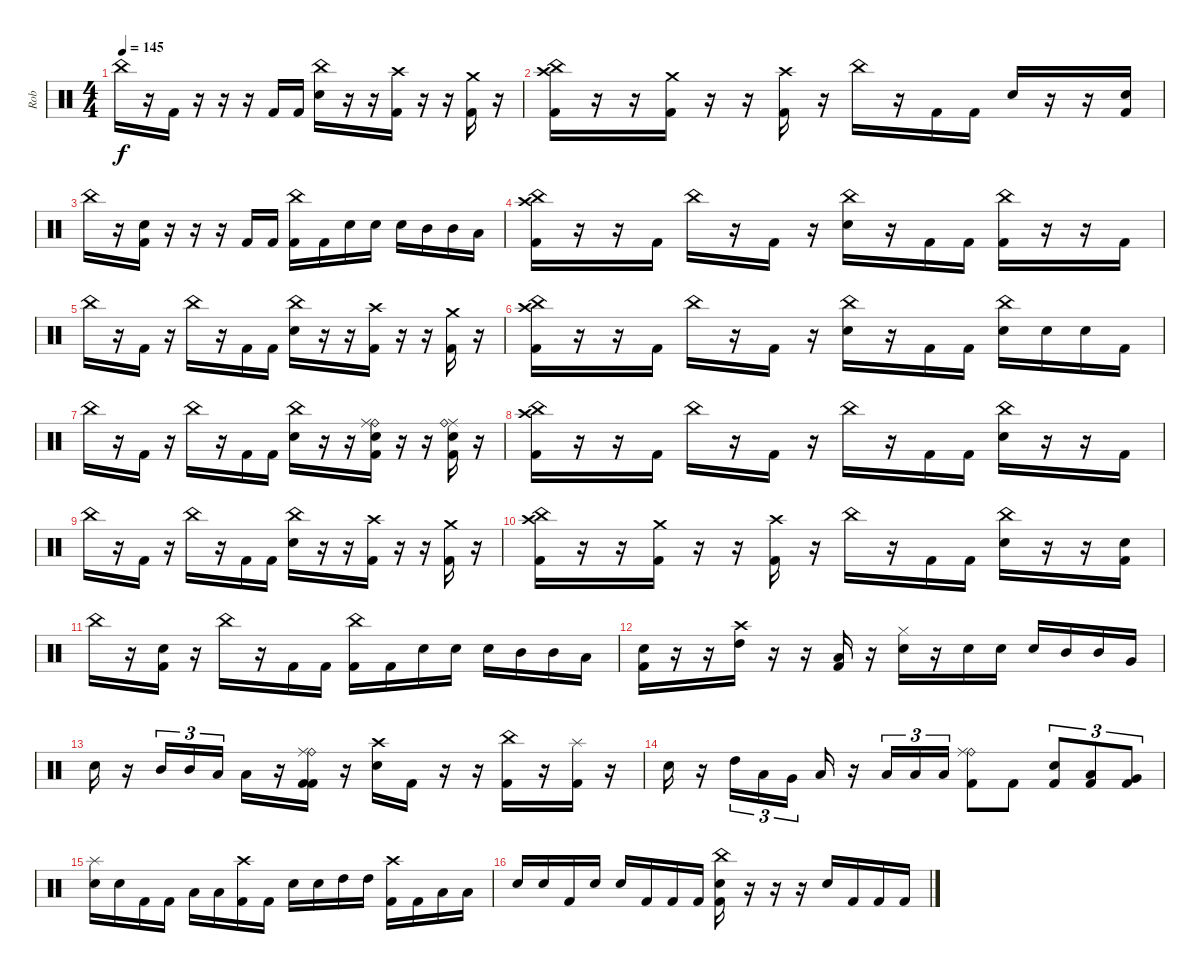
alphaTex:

\track ("Rob" "Rob") {instrument percussion}
\staff {score}
\articulation defaults
\ts (4 4)
\tempo 145
\clef neutral
\ks c "China (hit)".16{dy f}
r.16 "Kick (hit) 2".16 r.16 r.16 r.16 "Kick (hit) 2".16 "Kick (hit) 2".16 ("China (hit)" "Electric Snare (hit)").16 r.16 r.16 ("Crash high (hit)" "Kick (hit) 2").16 r.16 r.16 ("Crash medium (hit)" "Kick (hit) 2").16 r.16 |
("Kick (hit) 2" "Crash high (hit)" "China (hit)").16 r.16 r.16 ("Crash medium (hit)" "Kick (hit) 2").16 r.16 r.16 ("Crash high (hit)" "Kick (hit) 2").16 r.16 "China (hit)".16 r.16 "Kick (hit) 2".16 "Kick (hit) 2".16 "Electric Snare (hit)".16 r.16 r.16 ("Electric Snare (hit)" "Kick (hit) 2").16 |
"China (hit)".16 r.16 ("Electric Snare (hit)" "Kick (hit) 2").16 r.16 r.16 r.16 "Kick (hit) 2".16 "Kick (hit) 2".16 ("Kick (hit) 2" "China (hit)").16 "Kick (hit) 2".16 "Electric Snare (hit)".16 "Electric Snare (hit)".16 "Electric Snare (hit)".16 "Mid Tom (hit)".16 "Mid Tom (hit)".16 "Low Tom (hit)".16 |
("Kick (hit) 2" "Crash high (hit)" "China (hit)").16 r.16 r.16 "Kick (hit) 2".16 "China (hit)".16 r.16 "Kick (hit) 2".16 r.16 ("Electric Snare (hit)" "China (hit)").16 r.16 "Kick (hit) 2".16 "Kick (hit) 2".16 ("China (hit)" "Kick (hit) 2").16 r.16 r.16 "Kick (hit) 2".16 |
"China (hit)".16 r.16 "Kick (hit) 2".16 r.16 "China (hit)".16 r.16 "Kick (hit) 2".16 "Kick (hit) 2".16 ("China (hit)" "Electric Snare (hit)").16 r.16 r.16 ("Crash high (hit)" "Kick (hit) 2").16 r.16 r.16 ("Crash medium (hit)" "Kick (hit) 2").16 r.16 |
("Kick (hit) 2" "Crash high (hit)" "China (hit)").16 r.16 r.16 "Kick (hit) 2".16 "China (hit)".16 r.16 "Kick (hit) 2".16 r.16 ("Electric Snare (hit)" "China (hit)").16 r.16 "Kick (hit) 2".16 "Kick (hit) 2".16 ("China (hit)" "Electric Snare (hit)").16 "Electric Snare (hit)".16 "Electric Snare (hit)".16 "Kick (hit) 2".16 |
"China (hit)".16 r.16 "Kick (hit) 2".16 r.16 "China (hit)".16 r.16 "Kick (hit) 2".16 "Kick (hit) 2".16 ("China (hit)" "Electric Snare (hit)").16 r.16 r.16 ("Ride (bell)" "Ride (middle)" "Electric Snare (hit)" "Kick (hit) 2").16 r.16 r.16 ("Ride (middle)" "Ride (bell)" "Electric Snare (hit)" "Kick (hit) 2").16 r.16 |
("Kick (hit) 2" "Crash high (hit)" "China (hit)").16 r.16 r.16 "Kick (hit) 2".16 "China (hit)".16 r.16 "Kick (hit) 2".16 r.16 "China (hit)".16 r.16 "Kick (hit) 2".16 "Kick (hit) 2".16 ("China (hit)" "Electric Snare (hit)").16 r.16 r.16 "Kick (hit) 2".16 |
"China (hit)".16 r.16 "Kick (hit) 2".16 r.16 "China (hit)".16 r.16 "Kick (hit) 2".16 "Kick (hit) 2".16 ("China (hit)" "Electric Snare (hit)").16 r.16 r.16 ("Crash high (hit)" "Kick (hit) 2").16 r.16 r.16 ("Crash medium (hit)" "Kick (hit) 2").16 r.16 |
("Kick (hit) 2" "Crash high (hit)" "China (hit)").16 r.16 r.16 ("Crash medium (hit)" "Kick (hit) 2").16 r.16 r.16 ("Crash high (hit)" "Kick (hit) 2").16 r.16 "China (hit)".16 r.16 "Kick (hit) 2".16 "Kick (hit) 2".16 ("China (hit)" "Electric Snare (hit)").16 r.16 r.16 ("Electric Snare (hit)" "Kick (hit) 2").16 |
"China (hit)".16 r.16 ("Electric Snare (hit)" "Kick (hit) 2").16 r.16 "China (hit)".16 r.16 "Kick (hit) 2".16 "Kick (hit) 2".16 ("Kick (hit) 2" "China (hit)").16 "Kick (hit) 2".16 "Electric Snare (hit)".16 "Electric Snare (hit)".16 "Electric Snare (hit)".16 "Mid Tom (hit)".16 "Mid Tom (hit)".16 "Low Tom (hit)".16 |
("Electric Snare (hit)" "Kick (hit) 2").16 r.16 r.16 ("High Tom (hit)" "Crash high (hit)").16 r.16 r.16 ("Kick (hit) 2" "Low Tom (hit)").16 r.16 ("Electric Snare (hit)" "Hi-Hat (closed)").16 r.16 "Electric Snare (hit)".16 "Electric Snare (hit)".16 "Electric Snare (hit)".16 "Mid Tom (hit)".16 "Mid Tom (hit)".16 "Very Low Tom (hit)".16 |
"Electric Snare (hit)".16 r.16 "Mid Tom (hit)".16{tu (3 2)} "Mid Tom (hit)".16{tu (3 2)} "Low Tom (hit)".16{tu (3 2)} "Low Tom (hit)".16 r.16 ("Ride (bell)" "Ride (middle)" "Kick (hit) 2" "Kick (hit) 2").16 r.16 ("Crash high (hit)" "Electric Snare (hit)").16 "Kick (hit) 2".16 r.16 r.16 ("Kick (hit) 2" "China (hit)").16 r.16 ("Splash (hit)" "Kick (hit) 2").16 r.16 |
"Electric Snare (hit)".16 r.16 "High Tom (hit)".16{tu (3 2)} "Low Tom (hit)".16{tu (3 2)} "Very Low Tom (hit)".16{tu (3 2)} "Low Tom (hit)".16 r.16 "Low Tom (hit)".16{tu (3 2)} "Low Tom (hit)".16{tu (3 2)} "Low Tom (hit)".16{tu (3 2)} ("Ride (bell)" "Ride (middle)" "Kick (hit) 2").8 "Kick (hit) 2".8 ("Electric Snare (hit)" "Kick (hit) 2").8{tu (3 2)} ("Low Tom (hit)" "Kick (hit) 2").8{tu (3 2)} ("Very Low Tom (hit)" "Kick (hit) 2").8{tu (3 2)} |
("Splash (hit)" "Electric Snare (hit)").16 "Electric Snare (hit)".16 "Kick (hit) 2".16 "Kick (hit) 2".16 "Low Tom (hit)".16 "Low Tom (hit)".16 ("Crash high (hit)" "Kick (hit) 2").16 "Kick (hit) 2".16 "Electric Snare (hit)".16 "Electric Snare (hit)".16 "High Tom (hit)".16 "High Tom (hit)".16 ("Crash high (hit)" "Kick (hit) 2").16 "Kick (hit) 2".16 "Low Floor Tom (hit)".16 "Low Floor Tom (hit)".16 |
"Electric Snare (hit)".16 "Electric Snare (hit)".16 "Kick (hit) 2".16 "Electric Snare (hit)".16 "Electric Snare (hit)".16 "Kick (hit) 2".16 "Kick (hit) 2".16 "Kick (hit) 2".16 ("China (hit)" "Kick (hit) 2" "Electric Snare (hit)").16 r.16 r.16 r.16 "Electric Snare (hit)".16 "Kick (hit) 2".16 "Kick (hit) 2".16 "Kick (hit) 2".16
